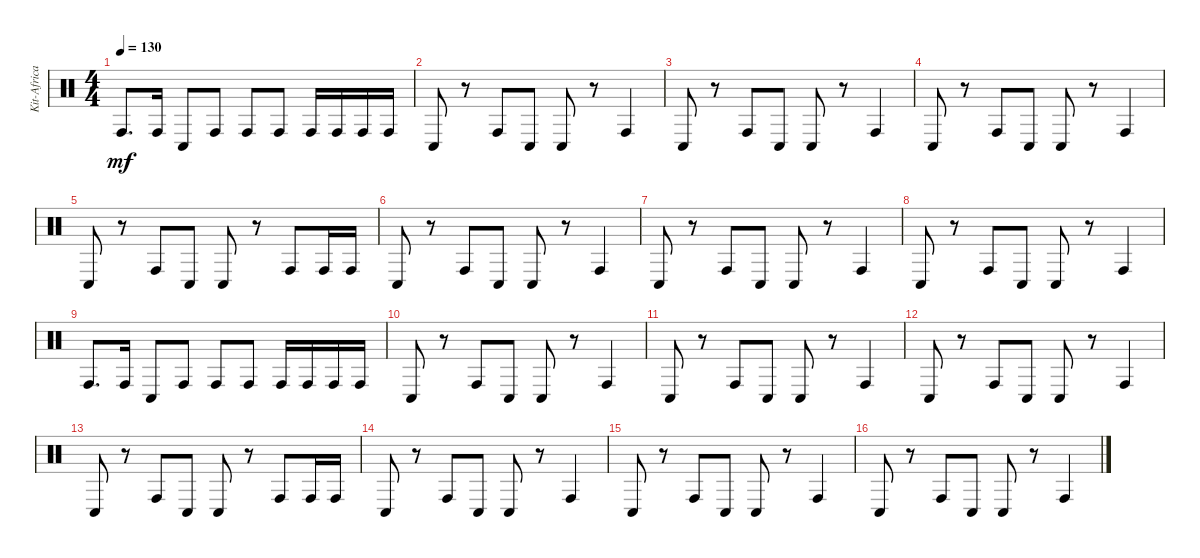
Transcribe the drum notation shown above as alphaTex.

\track ("Kit-Africa" "Kit-Africa") {instrument percussion}
\staff {score}
\articulation defaults
\ts (4 4)
\tempo 130
\clef neutral
\ks c "Conga high (hit)".8{d dy mf} "Conga high (hit)".16 "Conga low (hit)".8 "Conga high (hit)".8 "Conga high (hit)".8 "Conga high (hit)".8 "Conga high (hit)".16 "Conga high (hit)".16 "Conga high (hit)".16 "Conga high (hit)".16
|
"Conga low (hit)".8 r.8 "Conga high (hit)".8 "Conga low (hit)".8 "Conga low (hit)".8 r.8 "Conga high (hit)".4 |
"Conga low (hit)".8 r.8 "Conga high (hit)".8 "Conga low (hit)".8 "Conga low (hit)".8 r.8 "Conga high (hit)".4 |
"Conga low (hit)".8 r.8 "Conga high (hit)".8 "Conga low (hit)".8 "Conga low (hit)".8 r.8 "Conga high (hit)".4 |
"Conga low (hit)".8 r.8 "Conga high (hit)".8 "Conga low (hit)".8 "Conga low (hit)".8 r.8 "Conga high (hit)".8 "Conga high (hit)".16 "Conga high (hit)".16 |
"Conga low (hit)".8 r.8 "Conga high (hit)".8 "Conga low (hit)".8 "Conga low (hit)".8 r.8 "Conga high (hit)".4 |
"Conga low (hit)".8 r.8 "Conga high (hit)".8 "Conga low (hit)".8 "Conga low (hit)".8 r.8 "Conga high (hit)".4 |
"Conga low (hit)".8 r.8 "Conga high (hit)".8 "Conga low (hit)".8 "Conga low (hit)".8 r.8 "Conga high (hit)".4 |
"Conga high (hit)".8{d} "Conga high (hit)".16 "Conga low (hit)".8 "Conga high (hit)".8 "Conga high (hit)".8 "Conga high (hit)".8 "Conga high (hit)".16 "Conga high (hit)".16 "Conga high (hit)".16 "Conga high (hit)".16 |
"Conga low (hit)".8 r.8 "Conga high (hit)".8 "Conga low (hit)".8 "Conga low (hit)".8 r.8 "Conga high (hit)".4 |
"Conga low (hit)".8 r.8 "Conga high (hit)".8 "Conga low (hit)".8 "Conga low (hit)".8 r.8 "Conga high (hit)".4 |
"Conga low (hit)".8 r.8 "Conga high (hit)".8 "Conga low (hit)".8 "Conga low (hit)".8 r.8 "Conga high (hit)".4 |
"Conga low (hit)".8 r.8 "Conga high (hit)".8 "Conga low (hit)".8 "Conga low (hit)".8 r.8 "Conga high (hit)".8 "Conga high (hit)".16 "Conga high (hit)".16 |
"Conga low (hit)".8 r.8 "Conga high (hit)".8 "Conga low (hit)".8 "Conga low (hit)".8 r.8 "Conga high (hit)".4 |
"Conga low (hit)".8 r.8 "Conga high (hit)".8 "Conga low (hit)".8 "Conga low (hit)".8 r.8 "Conga high (hit)".4 |
"Conga low (hit)".8 r.8 "Conga high (hit)".8 "Conga low (hit)".8 "Conga low (hit)".8 r.8 "Conga high (hit)".4
